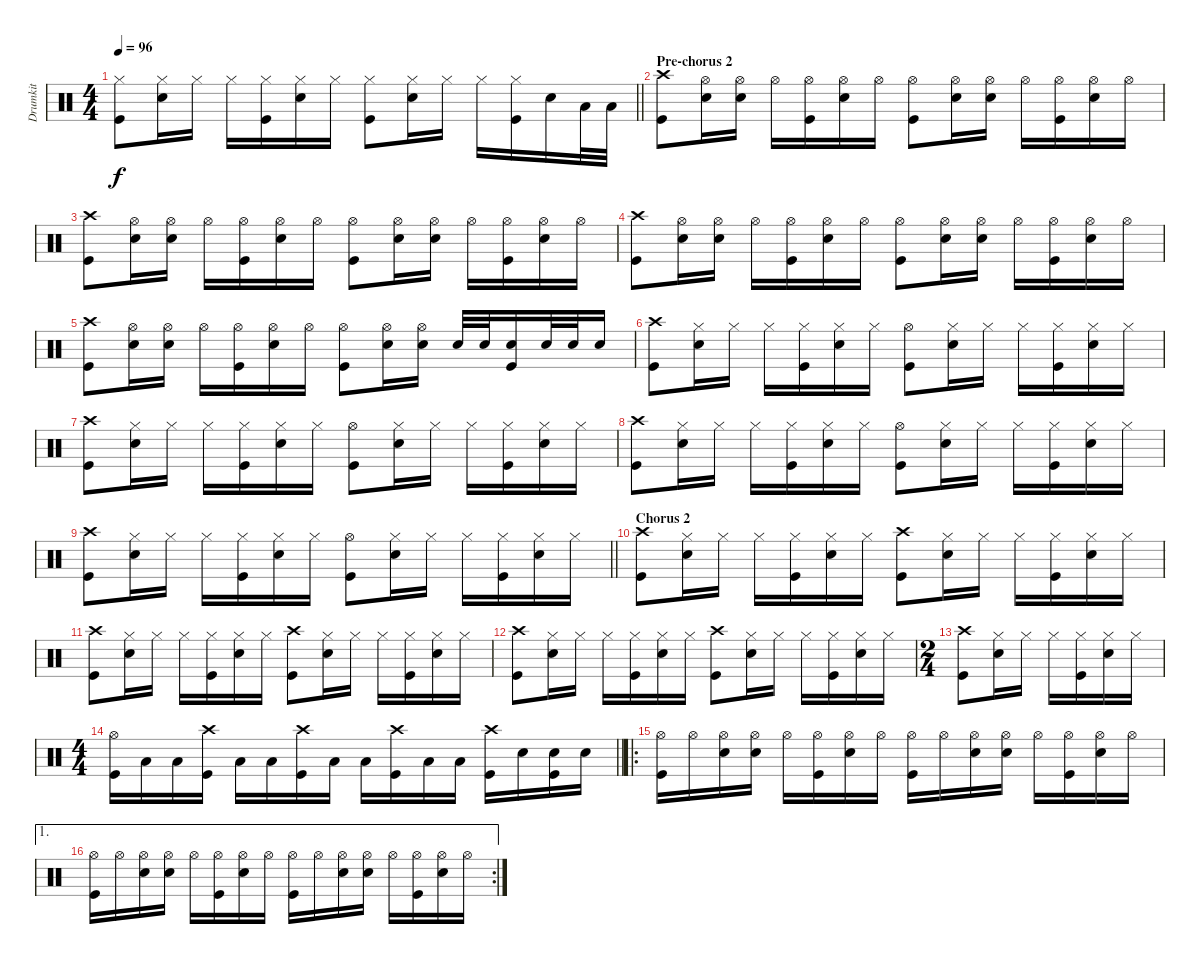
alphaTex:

\track ("Drumkit" "Drumkit") {instrument percussion}
\staff {score}
\articulation defaults
\ts (4 4)
\tempo 96
\clef neutral
\barLineRight lightlight
\ks c
("Hi-Hat (closed)" "Kick (hit)").8{dy f} ("Hi-Hat (closed)" "Snare (hit) 2").16 "Hi-Hat (closed)".16 "Hi-Hat (closed)".16 ("Hi-Hat (closed)" "Kick (hit)").16 ("Hi-Hat (closed)" "Snare (hit) 2").16 "Hi-Hat (closed)".16 ("Hi-Hat (closed)" "Kick (hit)").8 ("Hi-Hat (closed)" "Snare (hit) 2").16 "Hi-Hat (closed)".16 "Hi-Hat (closed)".16 ("Hi-Hat (closed)" "Kick (hit)").16 "Snare (hit) 2".16 "Low Tom (hit)".32 "Low Tom (hit)".32 |
\section ("" "Pre-chorus 2")
("Crash high (hit)" "Kick (hit)").8 ("Hi-Hat (open)" "Snare (hit) 2").16 ("Hi-Hat (open)" "Snare (hit) 2").16 "Hi-Hat (open)".16 ("Hi-Hat (open)" "Kick (hit)").16 ("Hi-Hat (open)" "Snare (hit) 2").16 "Hi-Hat (open)".16 ("Hi-Hat (open)" "Kick (hit)").8 ("Hi-Hat (open)" "Snare (hit) 2").16 ("Hi-Hat (open)" "Snare (hit) 2").16 "Hi-Hat (open)".16 ("Hi-Hat (open)" "Kick (hit)").16 ("Hi-Hat (open)" "Snare (hit) 2").16 "Hi-Hat (open)".16 |
("Crash high (hit)" "Kick (hit)").8 ("Hi-Hat (open)" "Snare (hit) 2").16 ("Hi-Hat (open)" "Snare (hit) 2").16 "Hi-Hat (open)".16 ("Hi-Hat (open)" "Kick (hit)").16 ("Hi-Hat (open)" "Snare (hit) 2").16 "Hi-Hat (open)".16 ("Hi-Hat (open)" "Kick (hit)").8 ("Hi-Hat (open)" "Snare (hit) 2").16 ("Hi-Hat (open)" "Snare (hit) 2").16 "Hi-Hat (open)".16 ("Hi-Hat (open)" "Kick (hit)").16 ("Hi-Hat (open)" "Snare (hit) 2").16 "Hi-Hat (open)".16 |
("Crash high (hit)" "Kick (hit)").8 ("Hi-Hat (open)" "Snare (hit) 2").16 ("Hi-Hat (open)" "Snare (hit) 2").16 "Hi-Hat (open)".16 ("Hi-Hat (open)" "Kick (hit)").16 ("Hi-Hat (open)" "Snare (hit) 2").16 "Hi-Hat (open)".16 ("Hi-Hat (open)" "Kick (hit)").8 ("Hi-Hat (open)" "Snare (hit) 2").16 ("Hi-Hat (open)" "Snare (hit) 2").16 "Hi-Hat (open)".16 ("Hi-Hat (open)" "Kick (hit)").16 ("Hi-Hat (open)" "Snare (hit) 2").16 "Hi-Hat (open)".16 |
("Crash high (hit)" "Kick (hit)").8 ("Hi-Hat (open)" "Snare (hit) 2").16 ("Hi-Hat (open)" "Snare (hit) 2").16 "Hi-Hat (open)".16 ("Hi-Hat (open)" "Kick (hit)").16 ("Hi-Hat (open)" "Snare (hit) 2").16 "Hi-Hat (open)".16 ("Hi-Hat (open)" "Kick (hit)").8 ("Hi-Hat (open)" "Snare (hit) 2").16 ("Hi-Hat (open)" "Snare (hit) 2").16 "Snare (hit) 2".32 "Snare (hit) 2".32 ("Snare (hit) 2" "Kick (hit)").16 "Snare (hit) 2".32 "Snare (hit) 2".32 "Snare (hit) 2".16 |
("Crash high (hit)" "Kick (hit)").8 ("Hi-Hat (closed)" "Snare (hit) 2").16 "Hi-Hat (closed)".16 "Hi-Hat (closed)".16 ("Hi-Hat (closed)" "Kick (hit)").16 ("Hi-Hat (closed)" "Snare (hit) 2").16 "Hi-Hat (closed)".16 ("Hi-Hat (open)" "Kick (hit)").8 ("Hi-Hat (closed)" "Snare (hit) 2").16 "Hi-Hat (closed)".16 "Hi-Hat (closed)".16 ("Hi-Hat (closed)" "Kick (hit)").16 ("Hi-Hat (closed)" "Snare (hit) 2").16 "Hi-Hat (closed)".16 |
("Crash high (hit)" "Kick (hit)").8 ("Hi-Hat (closed)" "Snare (hit) 2").16 "Hi-Hat (closed)".16 "Hi-Hat (closed)".16 ("Hi-Hat (closed)" "Kick (hit)").16 ("Hi-Hat (closed)" "Snare (hit) 2").16 "Hi-Hat (closed)".16 ("Hi-Hat (open)" "Kick (hit)").8 ("Hi-Hat (closed)" "Snare (hit) 2").16 "Hi-Hat (closed)".16 "Hi-Hat (closed)".16 ("Hi-Hat (closed)" "Kick (hit)").16 ("Hi-Hat (closed)" "Snare (hit) 2").16 "Hi-Hat (closed)".16 |
("Crash high (hit)" "Kick (hit)").8 ("Hi-Hat (closed)" "Snare (hit) 2").16 "Hi-Hat (closed)".16 "Hi-Hat (closed)".16 ("Hi-Hat (closed)" "Kick (hit)").16 ("Hi-Hat (closed)" "Snare (hit) 2").16 "Hi-Hat (closed)".16 ("Hi-Hat (open)" "Kick (hit)").8 ("Hi-Hat (closed)" "Snare (hit) 2").16 "Hi-Hat (closed)".16 "Hi-Hat (closed)".16 ("Hi-Hat (closed)" "Kick (hit)").16 ("Hi-Hat (closed)" "Snare (hit) 2").16 "Hi-Hat (closed)".16 |
\barLineRight lightlight
("Crash high (hit)" "Kick (hit)").8 ("Hi-Hat (closed)" "Snare (hit) 2").16 "Hi-Hat (closed)".16 "Hi-Hat (closed)".16 ("Hi-Hat (closed)" "Kick (hit)").16 ("Hi-Hat (closed)" "Snare (hit) 2").16 "Hi-Hat (closed)".16 ("Hi-Hat (open)" "Kick (hit)").8 ("Hi-Hat (closed)" "Snare (hit) 2").16 "Hi-Hat (closed)".16 "Hi-Hat (closed)".16 ("Hi-Hat (closed)" "Kick (hit)").16 ("Hi-Hat (closed)" "Snare (hit) 2").16 "Hi-Hat (closed)".16 |
\section ("" "Chorus 2")
("Crash high (hit)" "Kick (hit)").8 ("Hi-Hat (closed)" "Snare (hit) 2").16 "Hi-Hat (closed)".16 "Hi-Hat (closed)".16 ("Hi-Hat (closed)" "Kick (hit)").16 ("Hi-Hat (closed)" "Snare (hit) 2").16 "Hi-Hat (closed)".16 ("Crash high (hit)" "Kick (hit)").8 ("Hi-Hat (closed)" "Snare (hit) 2").16 "Hi-Hat (closed)".16 "Hi-Hat (closed)".16 ("Hi-Hat (closed)" "Kick (hit)").16 ("Hi-Hat (closed)" "Snare (hit) 2").16 "Hi-Hat (closed)".16 |
("Crash high (hit)" "Kick (hit)").8 ("Hi-Hat (closed)" "Snare (hit) 2").16 "Hi-Hat (closed)".16 "Hi-Hat (closed)".16 ("Hi-Hat (closed)" "Kick (hit)").16 ("Hi-Hat (closed)" "Snare (hit) 2").16 "Hi-Hat (closed)".16 ("Crash high (hit)" "Kick (hit)").8 ("Hi-Hat (closed)" "Snare (hit) 2").16 "Hi-Hat (closed)".16 "Hi-Hat (closed)".16 ("Hi-Hat (closed)" "Kick (hit)").16 ("Hi-Hat (closed)" "Snare (hit) 2").16 "Hi-Hat (closed)".16 |
("Crash high (hit)" "Kick (hit)").8 ("Hi-Hat (closed)" "Snare (hit) 2").16 "Hi-Hat (closed)".16 "Hi-Hat (closed)".16 ("Hi-Hat (closed)" "Kick (hit)").16 ("Hi-Hat (closed)" "Snare (hit) 2").16 "Hi-Hat (closed)".16 ("Crash high (hit)" "Kick (hit)").8 ("Hi-Hat (closed)" "Snare (hit) 2").16 "Hi-Hat (closed)".16 "Hi-Hat (closed)".16 ("Hi-Hat (closed)" "Kick (hit)").16 ("Hi-Hat (closed)" "Snare (hit) 2").16 "Hi-Hat (closed)".16 |
\ts (2 4)
("Crash high (hit)" "Kick (hit)").8 ("Hi-Hat (closed)" "Snare (hit) 2").16 "Hi-Hat (closed)".16 "Hi-Hat (closed)".16 ("Hi-Hat (closed)" "Kick (hit)").16 ("Hi-Hat (closed)" "Snare (hit) 2").16 "Hi-Hat (closed)".16 |
\ts (4 4)
\barLineRight lightlight
("Hi-Hat (open)" "Kick (hit)").16 "Low Tom (hit)".16 "Low Tom (hit)".16 ("Crash high (hit)" "Kick (hit)").16 "Low Tom (hit)".16 "Low Tom (hit)".16 ("Crash high (hit)" "Kick (hit)").16 "Low Tom (hit)".16 "Low Tom (hit)".16 ("Crash high (hit)" "Kick (hit)").16 "Low Tom (hit)".16 "Low Tom (hit)".16 ("Crash high (hit)" "Kick (hit)").16 "Snare (hit) 2".16 ("Snare (hit) 2" "Kick (hit)").16 "Snare (hit) 2".16 |
\ro
("Hi-Hat (open)" "Kick (hit)").16 "Hi-Hat (open)".16 ("Hi-Hat (open)" "Snare (hit) 2").16 ("Hi-Hat (open)" "Snare (hit) 2").16 "Hi-Hat (open)".16 ("Hi-Hat (open)" "Kick (hit)").16 ("Hi-Hat (open)" "Snare (hit) 2").16 "Hi-Hat (open)".16 ("Hi-Hat (open)" "Kick (hit)").16 "Hi-Hat (open)".16 ("Hi-Hat (open)" "Snare (hit) 2").16 ("Hi-Hat (open)" "Snare (hit) 2").16 "Hi-Hat (open)".16 ("Hi-Hat (open)" "Kick (hit)").16 ("Hi-Hat (open)" "Snare (hit) 2").16 "Hi-Hat (open)".16 |
\ae 1
\rc 2
("Hi-Hat (open)" "Kick (hit)").16 "Hi-Hat (open)".16 ("Hi-Hat (open)" "Snare (hit) 2").16 ("Hi-Hat (open)" "Snare (hit) 2").16 "Hi-Hat (open)".16 ("Hi-Hat (open)" "Kick (hit)").16 ("Hi-Hat (open)" "Snare (hit) 2").16 "Hi-Hat (open)".16 ("Hi-Hat (open)" "Kick (hit)").16 "Hi-Hat (open)".16 ("Hi-Hat (open)" "Snare (hit) 2").16 ("Hi-Hat (open)" "Snare (hit) 2").16 "Hi-Hat (open)".16 ("Hi-Hat (open)" "Kick (hit)").16 ("Hi-Hat (open)" "Snare (hit) 2").16 "Hi-Hat (open)".16
